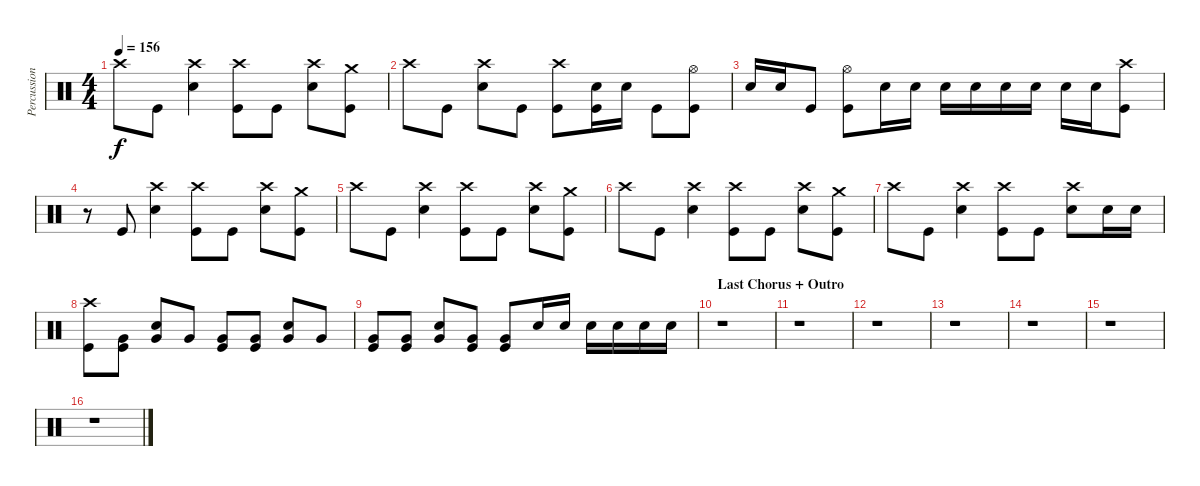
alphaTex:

\track ("Percussion" "Percussion") {instrument percussion}
\staff {score}
\articulation defaults
\ts (4 4)
\tempo 156
\clef neutral
\ks c "Crash high (hit)".8{dy f} "Kick (hit)".8
("Crash high (hit)" "Snare (hit) 2").4 ("Crash high (hit)" "Kick (hit)").8 "Kick (hit)".8 ("Crash high (hit)" "Snare (hit) 2").8 ("Crash medium (hit)" "Kick (hit)").8 |
"Crash high (hit)".8 "Kick (hit)".8 ("Crash high (hit)" "Snare (hit) 2").8 "Kick (hit)".8 ("Crash high (hit)" "Kick (hit)").8 ("Snare (hit) 2" "Kick (hit)").16 "Snare (hit) 2".16 "Kick (hit)".8 ("Hi-Hat (open)" "Kick (hit)").8 |
"Snare (hit) 2".16 "Snare (hit) 2".16 "Kick (hit)".8 ("Hi-Hat (open)" "Kick (hit)").8 "Snare (hit) 2".16 "Snare (hit) 2".16 "Snare (hit) 2".16 "Snare (hit) 2".16 "Snare (hit) 2".16 "Snare (hit) 2".16 "Snare (hit) 2".16 "Snare (hit) 2".16 ("Crash high (hit)" "Kick (hit)").8 |
r.8 "Kick (hit)".8 ("Crash high (hit)" "Snare (hit) 2").4 ("Crash high (hit)" "Kick (hit)").8 "Kick (hit)".8 ("Crash high (hit)" "Snare (hit) 2").8 ("Crash medium (hit)" "Kick (hit)").8 |
"Crash high (hit)".8 "Kick (hit)".8 ("Crash high (hit)" "Snare (hit) 2").4 ("Crash high (hit)" "Kick (hit)").8 "Kick (hit)".8 ("Crash high (hit)" "Snare (hit) 2").8 ("Crash medium (hit)" "Kick (hit)").8 |
"Crash high (hit)".8 "Kick (hit)".8 ("Crash high (hit)" "Snare (hit) 2").4 ("Crash high (hit)" "Kick (hit)").8 "Kick (hit)".8 ("Crash high (hit)" "Snare (hit) 2").8 ("Crash medium (hit)" "Kick (hit)").8 |
"Crash high (hit)".8 "Kick (hit)".8 ("Crash high (hit)" "Snare (hit) 2").4 ("Crash high (hit)" "Kick (hit)").8 "Kick (hit)".8 ("Crash high (hit)" "Snare (hit) 2").8 "Snare (hit) 2".16 "Snare (hit) 2".16 |
("Crash high (hit)" "Kick (hit)").8 ("Very Low Tom (hit)" "Kick (hit)").8 ("Snare (hit) 2" "Very Low Tom (hit)").8 "Very Low Tom (hit)".8 ("Very Low Tom (hit)" "Kick (hit)").8 ("Very Low Tom (hit)" "Kick (hit)").8 ("Snare (hit) 2" "Very Low Tom (hit)").8 "Very Low Tom (hit)".8 |
("Very Low Tom (hit)" "Kick (hit)").8 ("Very Low Tom (hit)" "Kick (hit)").8 ("Snare (hit) 2" "Very Low Tom (hit)").8 ("Very Low Tom (hit)" "Kick (hit)").8 ("Very Low Tom (hit)" "Kick (hit)").8 "Snare (hit) 2".16 "Snare (hit) 2".16 "Snare (hit) 2".16 "Snare (hit) 2".16 "Snare (hit) 2".16 "Snare (hit) 2".16 |
\section ("" "Last Chorus + Outro")
r.1 |
r.1 |
r.1 |
r.1 |
r.1 |
r.1 |
r.1
